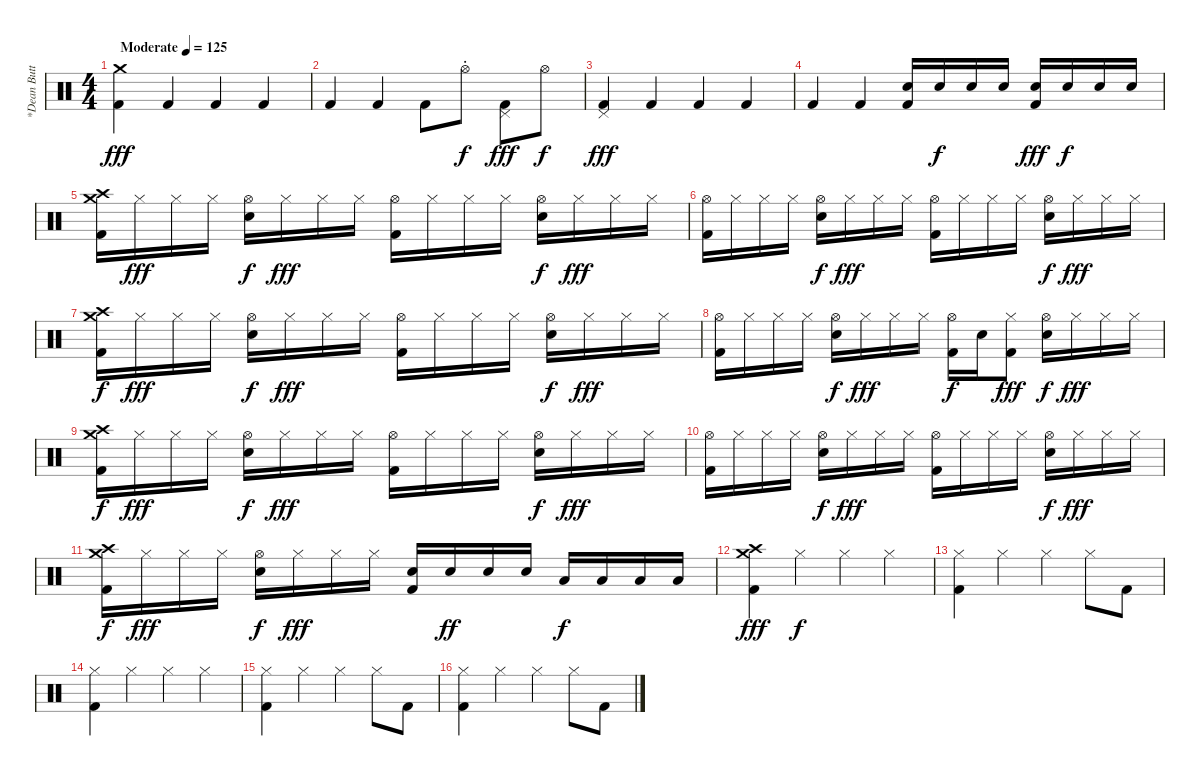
\track ("*Dean Butterworth (Drum)" "*Dean Butt") {instrument percussion}
\staff {score}
\articulation defaults
\ts (4 4)
\tempo (125 "Moderate")
\clef neutral
\ks c
("Crash medium (hit)" "Kick (hit) 2").4{dy fff} "Kick (hit) 2".4 "Kick (hit) 2".4 "Kick (hit) 2".4 |
"Kick (hit) 2".4 "Kick (hit) 2".4 "Kick (hit) 2".8 "Hi-Hat (open)"{st}.8{dy f} ("Pedal Hi-Hat (hit)" "Kick (hit) 2").8{dy fff} "Hi-Hat (open)".8{dy f} |
("Pedal Hi-Hat (hit)" "Kick (hit) 2").4{dy fff} "Kick (hit) 2".4 "Kick (hit) 2".4 "Kick (hit) 2".4 |
"Kick (hit) 2".4 "Kick (hit) 2".4 ("Electric Snare (hit)" "Kick (hit) 2").16 "Electric Snare (hit)".16{dy f} "Electric Snare (hit)".16 "Electric Snare (hit)".16 ("Electric Snare (hit)" "Kick (hit) 2").16{dy fff} "Electric Snare (hit)".16{dy f} "Electric Snare (hit)".16 "Electric Snare (hit)".16 |
("Crash high (hit)" "Crash medium (hit)" "Kick (hit) 2").16 "Hi-Hat (closed)".16{dy fff} "Hi-Hat (closed)".16 "Hi-Hat (closed)".16 ("Hi-Hat (open)" "Electric Snare (hit)").16{dy f} "Hi-Hat (closed)".16{dy fff} "Hi-Hat (closed)".16 "Hi-Hat (closed)".16 ("Hi-Hat (open)" "Kick (hit) 2").16 "Hi-Hat (closed)".16 "Hi-Hat (closed)".16 "Hi-Hat (closed)".16 ("Hi-Hat (open)" "Electric Snare (hit)").16{dy f} "Hi-Hat (closed)".16{dy fff} "Hi-Hat (closed)".16 "Hi-Hat (closed)".16 |
("Hi-Hat (open)" "Kick (hit) 2").16 "Hi-Hat (closed)".16 "Hi-Hat (closed)".16 "Hi-Hat (closed)".16 ("Hi-Hat (open)" "Electric Snare (hit)").16{dy f} "Hi-Hat (closed)".16{dy fff} "Hi-Hat (closed)".16 "Hi-Hat (closed)".16 ("Hi-Hat (open)" "Kick (hit) 2").16 "Hi-Hat (closed)".16 "Hi-Hat (closed)".16 "Hi-Hat (closed)".16 ("Hi-Hat (open)" "Electric Snare (hit)").16{dy f} "Hi-Hat (closed)".16{dy fff} "Hi-Hat (closed)".16 "Hi-Hat (closed)".16 |
("Crash high (hit)" "Crash medium (hit)" "Kick (hit) 2").16{dy f} "Hi-Hat (closed)".16{dy fff} "Hi-Hat (closed)".16 "Hi-Hat (closed)".16 ("Hi-Hat (open)" "Electric Snare (hit)").16{dy f} "Hi-Hat (closed)".16{dy fff} "Hi-Hat (closed)".16 "Hi-Hat (closed)".16 ("Hi-Hat (open)" "Kick (hit) 2").16 "Hi-Hat (closed)".16 "Hi-Hat (closed)".16 "Hi-Hat (closed)".16 ("Hi-Hat (open)" "Electric Snare (hit)").16{dy f} "Hi-Hat (closed)".16{dy fff} "Hi-Hat (closed)".16 "Hi-Hat (closed)".16 |
("Hi-Hat (open)" "Kick (hit) 2").16 "Hi-Hat (closed)".16 "Hi-Hat (closed)".16 "Hi-Hat (closed)".16 ("Hi-Hat (open)" "Electric Snare (hit)").16{dy f} "Hi-Hat (closed)".16{dy fff} "Hi-Hat (closed)".16 "Hi-Hat (closed)".16 ("Hi-Hat (open)" "Kick (hit) 2").16{dy f} "Electric Snare (hit)".16 ("Hi-Hat (closed)" "Kick (hit) 2").8{dy fff} ("Hi-Hat (open)" "Electric Snare (hit)").16{dy f} "Hi-Hat (closed)".16{dy fff} "Hi-Hat (closed)".16 "Hi-Hat (closed)".16 |
("Crash high (hit)" "Crash medium (hit)" "Kick (hit) 2").16{dy f} "Hi-Hat (closed)".16{dy fff} "Hi-Hat (closed)".16 "Hi-Hat (closed)".16 ("Hi-Hat (open)" "Electric Snare (hit)").16{dy f} "Hi-Hat (closed)".16{dy fff} "Hi-Hat (closed)".16 "Hi-Hat (closed)".16 ("Hi-Hat (open)" "Kick (hit) 2").16 "Hi-Hat (closed)".16 "Hi-Hat (closed)".16 "Hi-Hat (closed)".16 ("Hi-Hat (open)" "Electric Snare (hit)").16{dy f} "Hi-Hat (closed)".16{dy fff} "Hi-Hat (closed)".16 "Hi-Hat (closed)".16 |
("Hi-Hat (open)" "Kick (hit) 2").16 "Hi-Hat (closed)".16 "Hi-Hat (closed)".16 "Hi-Hat (closed)".16 ("Hi-Hat (open)" "Electric Snare (hit)").16{dy f} "Hi-Hat (closed)".16{dy fff} "Hi-Hat (closed)".16 "Hi-Hat (closed)".16 ("Hi-Hat (open)" "Kick (hit) 2").16 "Hi-Hat (closed)".16 "Hi-Hat (closed)".16 "Hi-Hat (closed)".16 ("Hi-Hat (open)" "Electric Snare (hit)").16{dy f} "Hi-Hat (closed)".16{dy fff} "Hi-Hat (closed)".16 "Hi-Hat (closed)".16 |
("Crash high (hit)" "Crash medium (hit)" "Kick (hit) 2").16{dy f} "Hi-Hat (closed)".16{dy fff} "Hi-Hat (closed)".16 "Hi-Hat (closed)".16 ("Hi-Hat (open)" "Electric Snare (hit)").16{dy f} "Hi-Hat (closed)".16{dy fff} "Hi-Hat (closed)".16 "Hi-Hat (closed)".16 ("Electric Snare (hit)" "Kick (hit) 2").16 "Electric Snare (hit)".16{dy ff} "Electric Snare (hit)".16 "Electric Snare (hit)".16 "Low Tom (hit)".16{dy f} "Low Tom (hit)".16 "Low Tom (hit)".16 "Low Tom (hit)".16 |
("Crash medium (hit)" "Crash high (hit)" "Kick (hit) 2").4{dy fff} "Hi-Hat (closed)".4{dy f} "Hi-Hat (closed)".4 "Hi-Hat (closed)".4 |
("Hi-Hat (closed)" "Kick (hit) 2").4 "Hi-Hat (closed)".4 "Hi-Hat (closed)".4 "Hi-Hat (closed)".8 "Kick (hit) 2".8 |
("Hi-Hat (closed)" "Kick (hit) 2").4 "Hi-Hat (closed)".4 "Hi-Hat (closed)".4 "Hi-Hat (closed)".4 |
("Hi-Hat (closed)" "Kick (hit) 2").4 "Hi-Hat (closed)".4 "Hi-Hat (closed)".4 "Hi-Hat (closed)".8 "Kick (hit) 2".8 |
("Hi-Hat (closed)" "Kick (hit) 2").4 "Hi-Hat (closed)".4 "Hi-Hat (closed)".4 "Hi-Hat (closed)".8 "Kick (hit) 2".8
